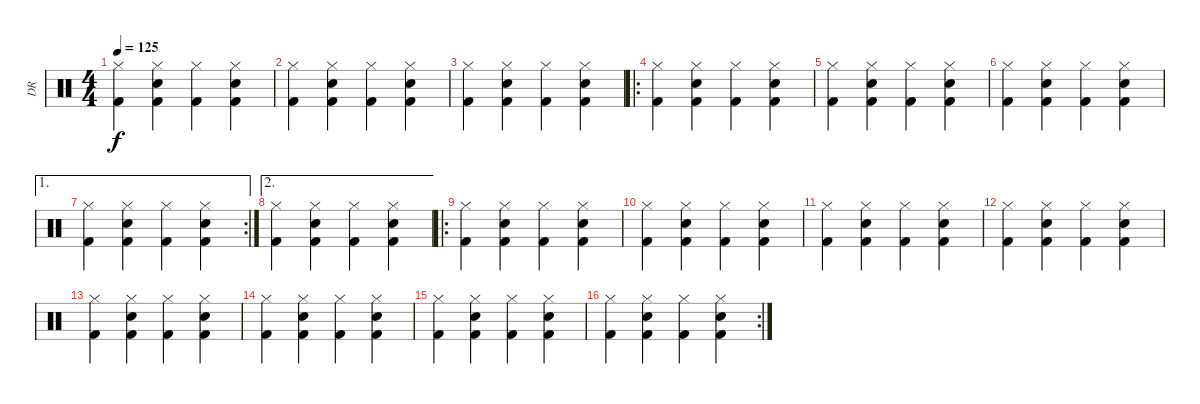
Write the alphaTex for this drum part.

\track ("DR" "DR") {instrument percussion}
\staff {score}
\articulation defaults
\ts (4 4)
\tempo 125
\clef neutral
\ks c
("Hi-Hat (closed)" "Kick (hit) 2").4{dy f} ("Kick (hit) 2" "Hand Clap (hit)" "Hi-Hat (closed)").4 ("Kick (hit) 2" "Hi-Hat (closed)").4 ("Kick (hit) 2" "Hi-Hat (closed)" "Hand Clap (hit)").4 |
("Hi-Hat (closed)" "Kick (hit) 2").4 ("Kick (hit) 2" "Hand Clap (hit)" "Hi-Hat (closed)").4 ("Kick (hit) 2" "Hi-Hat (closed)").4 ("Kick (hit) 2" "Hi-Hat (closed)" "Hand Clap (hit)").4 |
("Hi-Hat (closed)" "Kick (hit) 2").4 ("Kick (hit) 2" "Hand Clap (hit)" "Hi-Hat (closed)").4 ("Kick (hit) 2" "Hi-Hat (closed)").4 ("Kick (hit) 2" "Hi-Hat (closed)" "Hand Clap (hit)").4 |
\ro
("Hi-Hat (closed)" "Kick (hit) 2").4 ("Kick (hit) 2" "Hand Clap (hit)" "Hi-Hat (closed)").4 ("Kick (hit) 2" "Hi-Hat (closed)").4 ("Kick (hit) 2" "Hi-Hat (closed)" "Hand Clap (hit)").4 |
("Hi-Hat (closed)" "Kick (hit) 2").4 ("Kick (hit) 2" "Hand Clap (hit)" "Hi-Hat (closed)").4 ("Kick (hit) 2" "Hi-Hat (closed)").4 ("Kick (hit) 2" "Hi-Hat (closed)" "Hand Clap (hit)").4 |
("Hi-Hat (closed)" "Kick (hit) 2").4 ("Kick (hit) 2" "Hand Clap (hit)" "Hi-Hat (closed)").4 ("Kick (hit) 2" "Hi-Hat (closed)").4 ("Kick (hit) 2" "Hi-Hat (closed)" "Hand Clap (hit)").4 |
\ae 1
\rc 2
("Hi-Hat (closed)" "Kick (hit) 2").4 ("Kick (hit) 2" "Hand Clap (hit)" "Hi-Hat (closed)").4 ("Kick (hit) 2" "Hi-Hat (closed)").4 ("Kick (hit) 2" "Hi-Hat (closed)" "Hand Clap (hit)").4 |
\ae 2
("Hi-Hat (closed)" "Kick (hit) 2").4 ("Kick (hit) 2" "Hand Clap (hit)" "Hi-Hat (closed)").4 ("Kick (hit) 2" "Hi-Hat (closed)").4 ("Kick (hit) 2" "Hi-Hat (closed)" "Hand Clap (hit)").4 |
\ro
("Hi-Hat (closed)" "Kick (hit) 2").4 ("Kick (hit) 2" "Hand Clap (hit)" "Hi-Hat (closed)").4 ("Kick (hit) 2" "Hi-Hat (closed)").4 ("Kick (hit) 2" "Hi-Hat (closed)" "Hand Clap (hit)").4 |
("Hi-Hat (closed)" "Kick (hit) 2").4 ("Kick (hit) 2" "Hand Clap (hit)" "Hi-Hat (closed)").4 ("Kick (hit) 2" "Hi-Hat (closed)").4 ("Kick (hit) 2" "Hi-Hat (closed)" "Hand Clap (hit)").4 |
("Hi-Hat (closed)" "Kick (hit) 2").4 ("Kick (hit) 2" "Hand Clap (hit)" "Hi-Hat (closed)").4 ("Kick (hit) 2" "Hi-Hat (closed)").4 ("Kick (hit) 2" "Hi-Hat (closed)" "Hand Clap (hit)").4 |
("Hi-Hat (closed)" "Kick (hit) 2").4 ("Kick (hit) 2" "Hand Clap (hit)" "Hi-Hat (closed)").4 ("Kick (hit) 2" "Hi-Hat (closed)").4 ("Kick (hit) 2" "Hi-Hat (closed)" "Hand Clap (hit)").4 |
("Hi-Hat (closed)" "Kick (hit) 2").4 ("Kick (hit) 2" "Hand Clap (hit)" "Hi-Hat (closed)").4 ("Kick (hit) 2" "Hi-Hat (closed)").4 ("Kick (hit) 2" "Hi-Hat (closed)" "Hand Clap (hit)").4 |
("Hi-Hat (closed)" "Kick (hit) 2").4 ("Kick (hit) 2" "Hand Clap (hit)" "Hi-Hat (closed)").4 ("Kick (hit) 2" "Hi-Hat (closed)").4 ("Kick (hit) 2" "Hi-Hat (closed)" "Hand Clap (hit)").4 |
("Hi-Hat (closed)" "Kick (hit) 2").4 ("Kick (hit) 2" "Hand Clap (hit)" "Hi-Hat (closed)").4 ("Kick (hit) 2" "Hi-Hat (closed)").4 ("Kick (hit) 2" "Hi-Hat (closed)" "Hand Clap (hit)").4 |
\rc 2
("Hi-Hat (closed)" "Kick (hit) 2").4 ("Kick (hit) 2" "Hand Clap (hit)" "Hi-Hat (closed)").4 ("Kick (hit) 2" "Hi-Hat (closed)").4 ("Kick (hit) 2" "Hi-Hat (closed)" "Hand Clap (hit)").4
